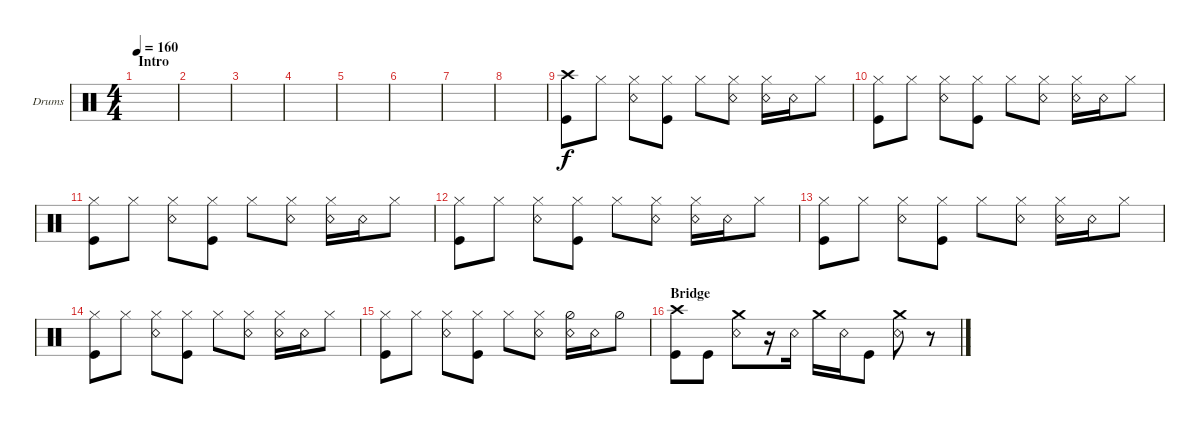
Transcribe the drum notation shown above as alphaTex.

\defaultSystemsLayout 4
\bracketExtendMode groupsimilarinstruments
\firstSystemTrackNameOrientation horizontal
\otherSystemsTrackNameOrientation horizontal
\track ("Drumkit" "Drums") {instrument percussion}
\staff {score}
\articulation defaults
\ts (4 4)
\section ("" "Intro")
\tempo 160
\clef neutral
\ks c
|
|
|
|
|
|
|
|
("Kick (hit)" "Crash high (hit)").8 "Hi-Hat (closed)".8 ("Snare (rim shot)" "Hi-Hat (closed)").8 ("Hi-Hat (closed)" "Kick (hit)").8 "Hi-Hat (closed)".8 ("Snare (rim shot)" "Hi-Hat (closed)").8 ("Snare (rim shot)" "Hi-Hat (closed)").16 "Snare (rim shot)".16 "Hi-Hat (closed)".8 |
("Kick (hit)" "Hi-Hat (closed)").8 "Hi-Hat (closed)".8 ("Snare (rim shot)" "Hi-Hat (closed)").8 ("Hi-Hat (closed)" "Kick (hit)").8 "Hi-Hat (closed)".8 ("Snare (rim shot)" "Hi-Hat (closed)").8 ("Snare (rim shot)" "Hi-Hat (closed)").16 "Snare (rim shot)".16 "Hi-Hat (closed)".8 |
("Kick (hit)" "Hi-Hat (closed)").8 "Hi-Hat (closed)".8 ("Snare (rim shot)" "Hi-Hat (closed)").8 ("Hi-Hat (closed)" "Kick (hit)").8 "Hi-Hat (closed)".8 ("Snare (rim shot)" "Hi-Hat (closed)").8 ("Snare (rim shot)" "Hi-Hat (closed)").16 "Snare (rim shot)".16 "Hi-Hat (closed)".8 |
("Kick (hit)" "Hi-Hat (closed)").8 "Hi-Hat (closed)".8 ("Snare (rim shot)" "Hi-Hat (closed)").8 ("Hi-Hat (closed)" "Kick (hit)").8 "Hi-Hat (closed)".8 ("Snare (rim shot)" "Hi-Hat (closed)").8 ("Snare (rim shot)" "Hi-Hat (closed)").16 "Snare (rim shot)".16 "Hi-Hat (closed)".8 |
("Kick (hit)" "Hi-Hat (closed)").8 "Hi-Hat (closed)".8 ("Snare (rim shot)" "Hi-Hat (closed)").8 ("Hi-Hat (closed)" "Kick (hit)").8 "Hi-Hat (closed)".8 ("Snare (rim shot)" "Hi-Hat (closed)").8 ("Snare (rim shot)" "Hi-Hat (closed)").16 "Snare (rim shot)".16 "Hi-Hat (closed)".8 |
("Kick (hit)" "Hi-Hat (closed)").8 "Hi-Hat (closed)".8 ("Snare (rim shot)" "Hi-Hat (closed)").8 ("Hi-Hat (closed)" "Kick (hit)").8 "Hi-Hat (closed)".8 ("Snare (rim shot)" "Hi-Hat (closed)").8 ("Snare (rim shot)" "Hi-Hat (closed)").16 "Snare (rim shot)".16 "Hi-Hat (closed)".8 |
("Kick (hit)" "Hi-Hat (closed)").8 "Hi-Hat (closed)".8 ("Snare (rim shot)" "Hi-Hat (closed)").8 ("Hi-Hat (closed)" "Kick (hit)").8 "Hi-Hat (closed)".8 ("Snare (rim shot)" "Hi-Hat (closed)").8 ("Snare (rim shot)" "Hi-Hat (half)").16 "Snare (rim shot)".16 "Hi-Hat (half)".8 |
\section ("" "Bridge")
("Kick (hit)" "Crash high (hit)").8 "Kick (hit)".8 ("Snare (rim shot)" "Crash medium (hit)").8 r.16 "Snare (rim shot)".16 "Crash medium (hit)".16 "Snare (rim shot)".16 "Kick (hit)".8 ("Snare (rim shot)" "Crash medium (hit)").8 r.8
